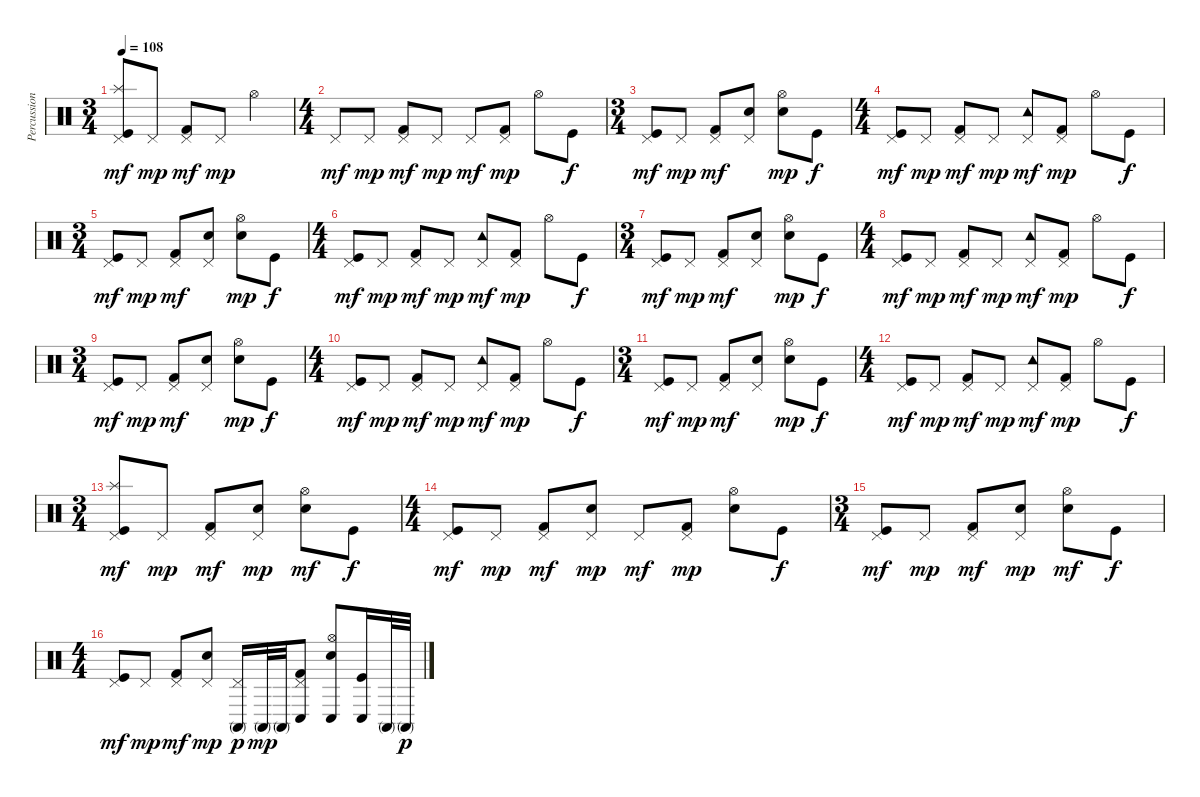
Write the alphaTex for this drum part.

\track ("Percussion" "Percussion") {instrument percussion}
\staff {score}
\articulation defaults
\ts (3 4)
\tempo 108
\clef neutral
\ks c
("Pedal Hi-Hat (hit)" "Splash (hit)" "Kick (hit)").8{dy mf} "Pedal Hi-Hat (hit)".8{dy mp} ("Pedal Hi-Hat (hit)" "Kick (hit) 2").8{dy mf} "Pedal Hi-Hat (hit)".8{dy mp} "Hi-Hat (open)".4 |
\ts (4 4)
"Pedal Hi-Hat (hit)".8{dy mf} "Pedal Hi-Hat (hit)".8{dy mp} ("Pedal Hi-Hat (hit)" "Kick (hit) 2").8{dy mf} "Pedal Hi-Hat (hit)".8{dy mp} "Pedal Hi-Hat (hit)".8{dy mf} ("Pedal Hi-Hat (hit)" "Kick (hit) 2").8{dy mp} "Hi-Hat (open)".8 "Kick (hit)".8{dy f} |
\ts (3 4)
("Pedal Hi-Hat (hit)" "Kick (hit)").8{dy mf} "Pedal Hi-Hat (hit)".8{dy mp} ("Pedal Hi-Hat (hit)" "Kick (hit) 2").8{dy mf} ("Pedal Hi-Hat (hit)" "Snare (hit) 2").8 ("Hi-Hat (open)" "Hand Clap (hit)").8{dy mp} "Kick (hit)".8{dy f} |
\ts (4 4)
("Pedal Hi-Hat (hit)" "Kick (hit)").8{dy mf} "Pedal Hi-Hat (hit)".8{dy mp} ("Pedal Hi-Hat (hit)" "Kick (hit) 2").8{dy mf} "Pedal Hi-Hat (hit)".8{dy mp} ("Pedal Hi-Hat (hit)" "Tambourine (hit)").8{dy mf} ("Pedal Hi-Hat (hit)" "Kick (hit) 2").8{dy mp} "Hi-Hat (open)".8 "Kick (hit)".8{dy f} |
\ts (3 4)
("Pedal Hi-Hat (hit)" "Kick (hit)").8{dy mf} "Pedal Hi-Hat (hit)".8{dy mp} ("Pedal Hi-Hat (hit)" "Kick (hit) 2").8{dy mf} ("Pedal Hi-Hat (hit)" "Snare (hit) 2").8 ("Hi-Hat (open)" "Hand Clap (hit)").8{dy mp} "Kick (hit)".8{dy f} |
\ts (4 4)
("Pedal Hi-Hat (hit)" "Kick (hit)").8{dy mf} "Pedal Hi-Hat (hit)".8{dy mp} ("Pedal Hi-Hat (hit)" "Kick (hit) 2").8{dy mf} "Pedal Hi-Hat (hit)".8{dy mp} ("Pedal Hi-Hat (hit)" "Tambourine (hit)").8{dy mf} ("Pedal Hi-Hat (hit)" "Kick (hit) 2").8{dy mp} "Hi-Hat (open)".8 "Kick (hit)".8{dy f} |
\ts (3 4)
("Pedal Hi-Hat (hit)" "Kick (hit)").8{dy mf} "Pedal Hi-Hat (hit)".8{dy mp} ("Pedal Hi-Hat (hit)" "Kick (hit) 2").8{dy mf} ("Pedal Hi-Hat (hit)" "Snare (hit) 2").8 ("Hi-Hat (open)" "Hand Clap (hit)").8{dy mp} "Kick (hit)".8{dy f} |
\ts (4 4)
("Pedal Hi-Hat (hit)" "Kick (hit)").8{dy mf} "Pedal Hi-Hat (hit)".8{dy mp} ("Pedal Hi-Hat (hit)" "Kick (hit) 2").8{dy mf} "Pedal Hi-Hat (hit)".8{dy mp} ("Pedal Hi-Hat (hit)" "Tambourine (hit)").8{dy mf} ("Pedal Hi-Hat (hit)" "Kick (hit) 2").8{dy mp} "Hi-Hat (open)".8 "Kick (hit)".8{dy f} |
\ts (3 4)
("Pedal Hi-Hat (hit)" "Kick (hit)").8{dy mf} "Pedal Hi-Hat (hit)".8{dy mp} ("Pedal Hi-Hat (hit)" "Kick (hit) 2").8{dy mf} ("Pedal Hi-Hat (hit)" "Snare (hit) 2").8 ("Hi-Hat (open)" "Hand Clap (hit)").8{dy mp} "Kick (hit)".8{dy f} |
\ts (4 4)
("Pedal Hi-Hat (hit)" "Kick (hit)").8{dy mf} "Pedal Hi-Hat (hit)".8{dy mp} ("Pedal Hi-Hat (hit)" "Kick (hit) 2").8{dy mf} "Pedal Hi-Hat (hit)".8{dy mp} ("Pedal Hi-Hat (hit)" "Tambourine (hit)").8{dy mf} ("Pedal Hi-Hat (hit)" "Kick (hit) 2").8{dy mp} "Hi-Hat (open)".8 "Kick (hit)".8{dy f} |
\ts (3 4)
("Pedal Hi-Hat (hit)" "Kick (hit)").8{dy mf} "Pedal Hi-Hat (hit)".8{dy mp} ("Pedal Hi-Hat (hit)" "Kick (hit) 2").8{dy mf} ("Pedal Hi-Hat (hit)" "Snare (hit) 2").8 ("Hi-Hat (open)" "Hand Clap (hit)").8{dy mp} "Kick (hit)".8{dy f} |
\ts (4 4)
("Pedal Hi-Hat (hit)" "Kick (hit)").8{dy mf} "Pedal Hi-Hat (hit)".8{dy mp} ("Pedal Hi-Hat (hit)" "Kick (hit) 2").8{dy mf} "Pedal Hi-Hat (hit)".8{dy mp} ("Pedal Hi-Hat (hit)" "Tambourine (hit)").8{dy mf} ("Pedal Hi-Hat (hit)" "Kick (hit) 2").8{dy mp} "Hi-Hat (open)".8 "Kick (hit)".8{dy f} |
\ts (3 4)
("Pedal Hi-Hat (hit)" "Splash (hit)" "Kick (hit)").8{dy mf} "Pedal Hi-Hat (hit)".8{dy mp} ("Pedal Hi-Hat (hit)" "Kick (hit) 2").8{dy mf} ("Pedal Hi-Hat (hit)" "Hand Clap (hit)").8{dy mp} ("Hi-Hat (open)" "Hand Clap (hit)").8{dy mf} "Kick (hit)".8{dy f} |
\ts (4 4)
("Pedal Hi-Hat (hit)" "Kick (hit)").8{dy mf} "Pedal Hi-Hat (hit)".8{dy mp} ("Pedal Hi-Hat (hit)" "Kick (hit) 2").8{dy mf} ("Pedal Hi-Hat (hit)" "Hand Clap (hit)").8{dy mp} "Pedal Hi-Hat (hit)".8{dy mf} ("Pedal Hi-Hat (hit)" "Kick (hit) 2").8{dy mp} ("Hi-Hat (open)" "Hand Clap (hit)").8 "Kick (hit)".8{dy f} |
\ts (3 4)
("Pedal Hi-Hat (hit)" "Kick (hit)").8{dy mf} "Pedal Hi-Hat (hit)".8{dy mp} ("Pedal Hi-Hat (hit)" "Kick (hit) 2").8{dy mf} ("Pedal Hi-Hat (hit)" "Hand Clap (hit)").8{dy mp} ("Hi-Hat (open)" "Hand Clap (hit)").8{dy mf} "Kick (hit)".8{dy f} |
\ts (4 4)
("Pedal Hi-Hat (hit)" "Kick (hit)").8{dy mf} "Pedal Hi-Hat (hit)".8{dy mp} ("Pedal Hi-Hat (hit)" "Kick (hit) 2").8{dy mf} ("Pedal Hi-Hat (hit)" "Hand Clap (hit)").8{dy mp} ("Pedal Hi-Hat (hit)" "Conga high (mute)").16{dy p} "Conga high (mute)".32{dy mp} "Conga high (mute)".32 ("Pedal Hi-Hat (hit)" "Conga low (hit)" "Kick (hit) 2").8 ("Hi-Hat (open)" "Conga low (hit)" "Hand Clap (hit)").8 ("Conga low (hit)" "Kick (hit)").16 "Conga high (mute)".32 "Conga high (mute)".32{dy p}
